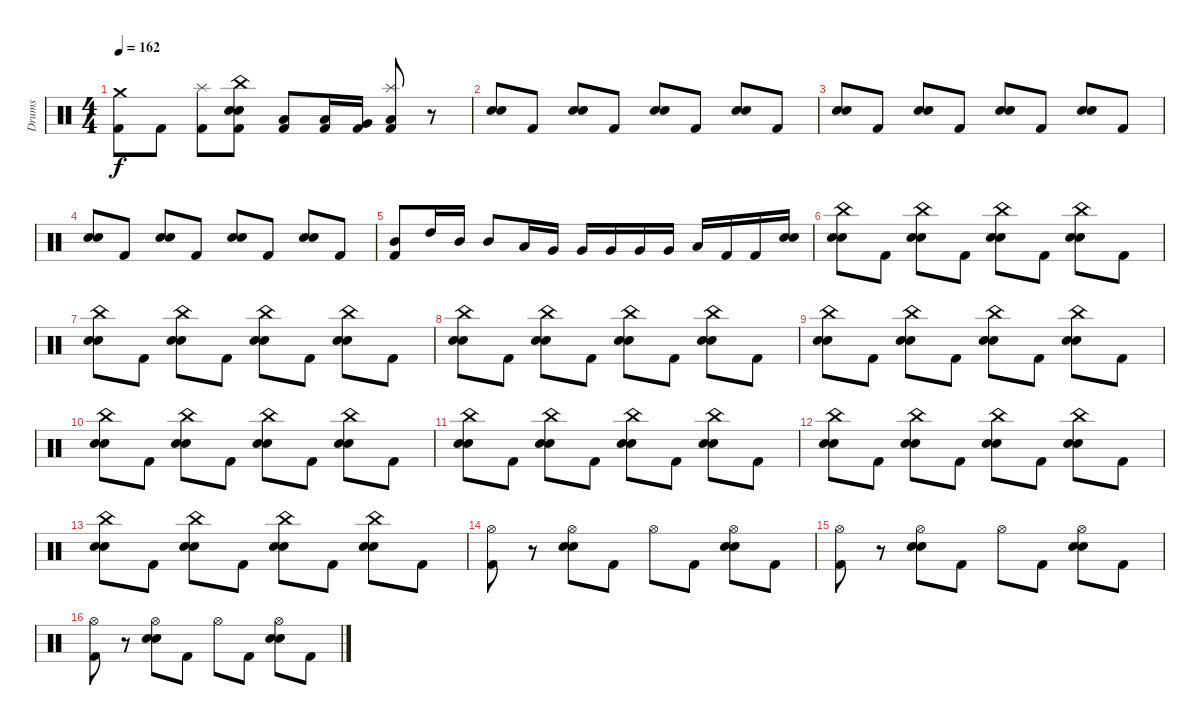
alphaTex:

\track ("Drums" "Drums") {instrument percussion}
\staff {score}
\articulation defaults
\ts (4 4)
\tempo 162
\clef neutral
\ks c
("Crash medium (hit)" "Kick (hit) 2").8{dy f} "Kick (hit) 2".8 ("Splash (hit)" "Kick (hit) 2").8 ("Kick (hit) 2" "China (hit)" "Electric Snare (hit)" "Snare (hit) 2").8 ("Low Tom (hit)" "Kick (hit) 2").8 ("Low Tom (hit)" "Kick (hit) 2").16 ("Very Low Tom (hit)" "Kick (hit) 2").16 ("Low Tom (hit)" "Splash (hit)" "Kick (hit) 2").8 r.8 |
("Electric Snare (hit)" "Snare (hit) 2").8 "Kick (hit) 2".8 ("Electric Snare (hit)" "Snare (hit) 2").8 "Kick (hit) 2".8 ("Electric Snare (hit)" "Snare (hit) 2").8 "Kick (hit) 2".8 ("Electric Snare (hit)" "Snare (hit) 2").8 "Kick (hit) 2".8 |
("Electric Snare (hit)" "Snare (hit) 2").8 "Kick (hit) 2".8 ("Electric Snare (hit)" "Snare (hit) 2").8 "Kick (hit) 2".8 ("Electric Snare (hit)" "Snare (hit) 2").8 "Kick (hit) 2".8 ("Electric Snare (hit)" "Snare (hit) 2").8 "Kick (hit) 2".8 |
("Electric Snare (hit)" "Snare (hit) 2").8 "Kick (hit) 2".8 ("Electric Snare (hit)" "Snare (hit) 2").8 "Kick (hit) 2".8 ("Electric Snare (hit)" "Snare (hit) 2").8 "Kick (hit) 2".8 ("Electric Snare (hit)" "Snare (hit) 2").8 "Kick (hit) 2".8 |
("Mid Tom (hit)" "Kick (hit) 2").8 "High Tom (hit)".16 "Mid Tom (hit)".16 "Mid Tom (hit)".8 "Low Tom (hit)".16 "Very Low Tom (hit)".16 "Very Low Tom (hit)".16 "Very Low Tom (hit)".16 "Very Low Tom (hit)".16 "Very Low Tom (hit)".16 "Low Floor Tom (hit)".16 "Kick (hit) 2".16 "Kick (hit) 2".16 ("Electric Snare (hit)" "Snare (hit) 2").16 |
("Electric Snare (hit)" "Snare (hit) 2" "China (hit)").8 "Kick (hit) 2".8 ("Electric Snare (hit)" "Snare (hit) 2" "China (hit)").8 "Kick (hit) 2".8 ("Electric Snare (hit)" "Snare (hit) 2" "China (hit)").8 "Kick (hit) 2".8 ("Electric Snare (hit)" "Snare (hit) 2" "China (hit)").8 "Kick (hit) 2".8 |
("Electric Snare (hit)" "Snare (hit) 2" "China (hit)").8 "Kick (hit) 2".8 ("Electric Snare (hit)" "Snare (hit) 2" "China (hit)").8 "Kick (hit) 2".8 ("Electric Snare (hit)" "Snare (hit) 2" "China (hit)").8 "Kick (hit) 2".8 ("Electric Snare (hit)" "Snare (hit) 2" "China (hit)").8 "Kick (hit) 2".8 |
("Electric Snare (hit)" "Snare (hit) 2" "China (hit)").8 "Kick (hit) 2".8 ("Electric Snare (hit)" "Snare (hit) 2" "China (hit)").8 "Kick (hit) 2".8 ("Electric Snare (hit)" "Snare (hit) 2" "China (hit)").8 "Kick (hit) 2".8 ("Electric Snare (hit)" "Snare (hit) 2" "China (hit)").8 "Kick (hit) 2".8 |
("Electric Snare (hit)" "Snare (hit) 2" "China (hit)").8 "Kick (hit) 2".8 ("Electric Snare (hit)" "Snare (hit) 2" "China (hit)").8 "Kick (hit) 2".8 ("Electric Snare (hit)" "Snare (hit) 2" "China (hit)").8 "Kick (hit) 2".8 ("Electric Snare (hit)" "Snare (hit) 2" "China (hit)").8 "Kick (hit) 2".8 |
("Electric Snare (hit)" "Snare (hit) 2" "China (hit)").8 "Kick (hit) 2".8 ("Electric Snare (hit)" "Snare (hit) 2" "China (hit)").8 "Kick (hit) 2".8 ("Electric Snare (hit)" "Snare (hit) 2" "China (hit)").8 "Kick (hit) 2".8 ("Electric Snare (hit)" "Snare (hit) 2" "China (hit)").8 "Kick (hit) 2".8 |
("Electric Snare (hit)" "Snare (hit) 2" "China (hit)").8 "Kick (hit) 2".8 ("Electric Snare (hit)" "Snare (hit) 2" "China (hit)").8 "Kick (hit) 2".8 ("Electric Snare (hit)" "Snare (hit) 2" "China (hit)").8 "Kick (hit) 2".8 ("Electric Snare (hit)" "Snare (hit) 2" "China (hit)").8 "Kick (hit) 2".8 |
("Electric Snare (hit)" "Snare (hit) 2" "China (hit)").8 "Kick (hit) 2".8 ("Electric Snare (hit)" "Snare (hit) 2" "China (hit)").8 "Kick (hit) 2".8 ("Electric Snare (hit)" "Snare (hit) 2" "China (hit)").8 "Kick (hit) 2".8 ("Electric Snare (hit)" "Snare (hit) 2" "China (hit)").8 "Kick (hit) 2".8 |
("Electric Snare (hit)" "Snare (hit) 2" "China (hit)").8 "Kick (hit) 2".8 ("Electric Snare (hit)" "Snare (hit) 2" "China (hit)").8 "Kick (hit) 2".8 ("Electric Snare (hit)" "Snare (hit) 2" "China (hit)").8 "Kick (hit) 2".8 ("Electric Snare (hit)" "Snare (hit) 2" "China (hit)").8 "Kick (hit) 2".8 |
("Hi-Hat (open)" "Kick (hit) 2").8 r.8 ("Hi-Hat (open)" "Electric Snare (hit)" "Snare (hit) 2").8 "Kick (hit) 2".8 "Hi-Hat (open)".8 "Kick (hit) 2".8 ("Hi-Hat (open)" "Electric Snare (hit)" "Snare (hit) 2").8 "Kick (hit) 2".8 |
("Hi-Hat (open)" "Kick (hit) 2").8 r.8 ("Hi-Hat (open)" "Electric Snare (hit)" "Snare (hit) 2").8 "Kick (hit) 2".8 "Hi-Hat (open)".8 "Kick (hit) 2".8 ("Hi-Hat (open)" "Electric Snare (hit)" "Snare (hit) 2").8 "Kick (hit) 2".8 |
("Hi-Hat (open)" "Kick (hit) 2").8 r.8 ("Hi-Hat (open)" "Electric Snare (hit)" "Snare (hit) 2").8 "Kick (hit) 2".8 "Hi-Hat (open)".8 "Kick (hit) 2".8 ("Hi-Hat (open)" "Electric Snare (hit)" "Snare (hit) 2").8 "Kick (hit) 2".8
